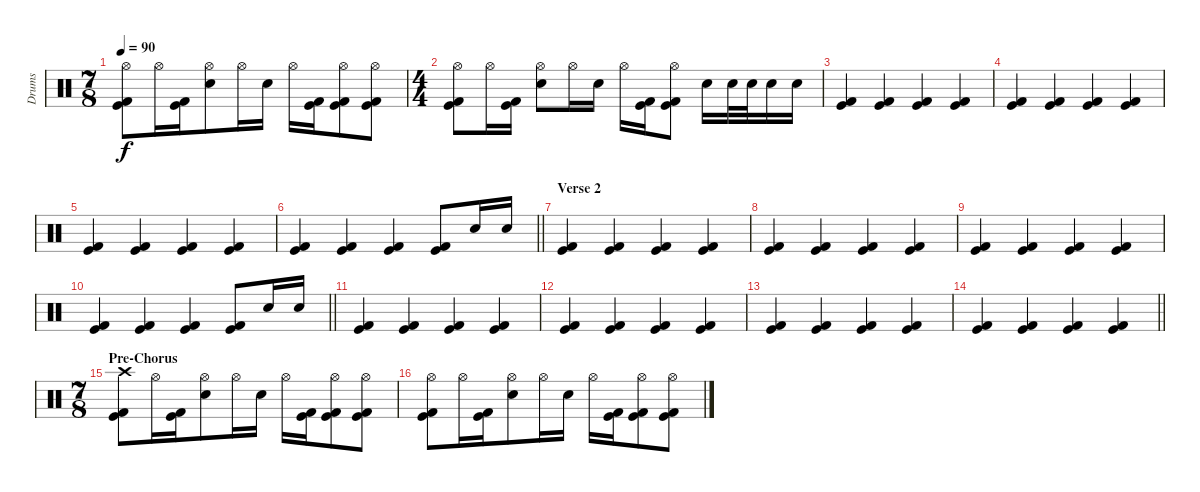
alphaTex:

\track ("Drums" "Drums") {instrument percussion}
\staff {score}
\articulation defaults
\ts (7 8)
\tempo 90
\clef neutral
\ks c
("Hi-Hat (open)" "Kick (hit)" "Kick (hit) 2").8{dy f} "Hi-Hat (open)".16 ("Kick (hit)" "Kick (hit) 2").16 ("Hi-Hat (open)" "Snare (hit) 2").8 "Hi-Hat (open)".16 "Snare (hit) 2".16 "Hi-Hat (open)".16 ("Kick (hit)" "Kick (hit) 2").16 ("Hi-Hat (open)" "Kick (hit)" "Kick (hit) 2").8 ("Hi-Hat (open)" "Kick (hit)" "Kick (hit) 2").8 |
\ts (4 4)
("Hi-Hat (open)" "Kick (hit)" "Kick (hit) 2").8 "Hi-Hat (open)".16 ("Kick (hit)" "Kick (hit) 2").16 ("Hi-Hat (open)" "Snare (hit) 2").8 "Hi-Hat (open)".16 "Snare (hit) 2".16 "Hi-Hat (open)".16 ("Kick (hit)" "Kick (hit) 2").16 ("Hi-Hat (open)" "Kick (hit)" "Kick (hit) 2").8 "Snare (hit) 2".16 "Snare (hit) 2".32 "Snare (hit) 2".32 "Snare (hit) 2".16 "Snare (hit) 2".16 |
("Kick (hit)" "Kick (hit) 2").4 ("Kick (hit)" "Kick (hit) 2").4 ("Kick (hit)" "Kick (hit) 2").4 ("Kick (hit)" "Kick (hit) 2").4 |
("Kick (hit)" "Kick (hit) 2").4 ("Kick (hit)" "Kick (hit) 2").4 ("Kick (hit)" "Kick (hit) 2").4 ("Kick (hit)" "Kick (hit) 2").4 |
("Kick (hit)" "Kick (hit) 2").4 ("Kick (hit)" "Kick (hit) 2").4 ("Kick (hit)" "Kick (hit) 2").4 ("Kick (hit)" "Kick (hit) 2").4 |
\barLineRight lightlight
("Kick (hit)" "Kick (hit) 2").4 ("Kick (hit)" "Kick (hit) 2").4 ("Kick (hit)" "Kick (hit) 2").4 ("Kick (hit)" "Kick (hit) 2").8 "Snare (hit) 2".16 "Snare (hit) 2".16 |
\section ("" "Verse 2")
("Kick (hit)" "Kick (hit) 2").4 ("Kick (hit)" "Kick (hit) 2").4 ("Kick (hit)" "Kick (hit) 2").4 ("Kick (hit)" "Kick (hit) 2").4 |
("Kick (hit)" "Kick (hit) 2").4 ("Kick (hit)" "Kick (hit) 2").4 ("Kick (hit)" "Kick (hit) 2").4 ("Kick (hit)" "Kick (hit) 2").4 |
("Kick (hit)" "Kick (hit) 2").4 ("Kick (hit)" "Kick (hit) 2").4 ("Kick (hit)" "Kick (hit) 2").4 ("Kick (hit)" "Kick (hit) 2").4 |
\barLineRight lightlight
("Kick (hit)" "Kick (hit) 2").4 ("Kick (hit)" "Kick (hit) 2").4 ("Kick (hit)" "Kick (hit) 2").4 ("Kick (hit)" "Kick (hit) 2").8 "Snare (hit) 2".16 "Snare (hit) 2".16 |
("Kick (hit)" "Kick (hit) 2").4 ("Kick (hit)" "Kick (hit) 2").4 ("Kick (hit)" "Kick (hit) 2").4 ("Kick (hit)" "Kick (hit) 2").4 |
("Kick (hit)" "Kick (hit) 2").4 ("Kick (hit)" "Kick (hit) 2").4 ("Kick (hit)" "Kick (hit) 2").4 ("Kick (hit)" "Kick (hit) 2").4 |
("Kick (hit)" "Kick (hit) 2").4 ("Kick (hit)" "Kick (hit) 2").4 ("Kick (hit)" "Kick (hit) 2").4 ("Kick (hit)" "Kick (hit) 2").4 |
\barLineRight lightlight
("Kick (hit)" "Kick (hit) 2").4 ("Kick (hit)" "Kick (hit) 2").4 ("Kick (hit)" "Kick (hit) 2").4 ("Kick (hit)" "Kick (hit) 2").4 |
\ts (7 8)
\section ("" "Pre-Chorus")
("Crash high (hit)" "Kick (hit)" "Kick (hit) 2").8 "Hi-Hat (open)".16 ("Kick (hit)" "Kick (hit) 2").16 ("Hi-Hat (open)" "Snare (hit) 2").8 "Hi-Hat (open)".16 "Snare (hit) 2".16 "Hi-Hat (open)".16 ("Kick (hit)" "Kick (hit) 2").16 ("Hi-Hat (open)" "Kick (hit)" "Kick (hit) 2").8 ("Hi-Hat (open)" "Kick (hit)" "Kick (hit) 2").8 |
("Hi-Hat (open)" "Kick (hit)" "Kick (hit) 2").8 "Hi-Hat (open)".16 ("Kick (hit)" "Kick (hit) 2").16 ("Hi-Hat (open)" "Snare (hit) 2").8 "Hi-Hat (open)".16 "Snare (hit) 2".16 "Hi-Hat (open)".16 ("Kick (hit)" "Kick (hit) 2").16 ("Hi-Hat (open)" "Kick (hit)" "Kick (hit) 2").8 ("Hi-Hat (open)" "Kick (hit)" "Kick (hit) 2").8
